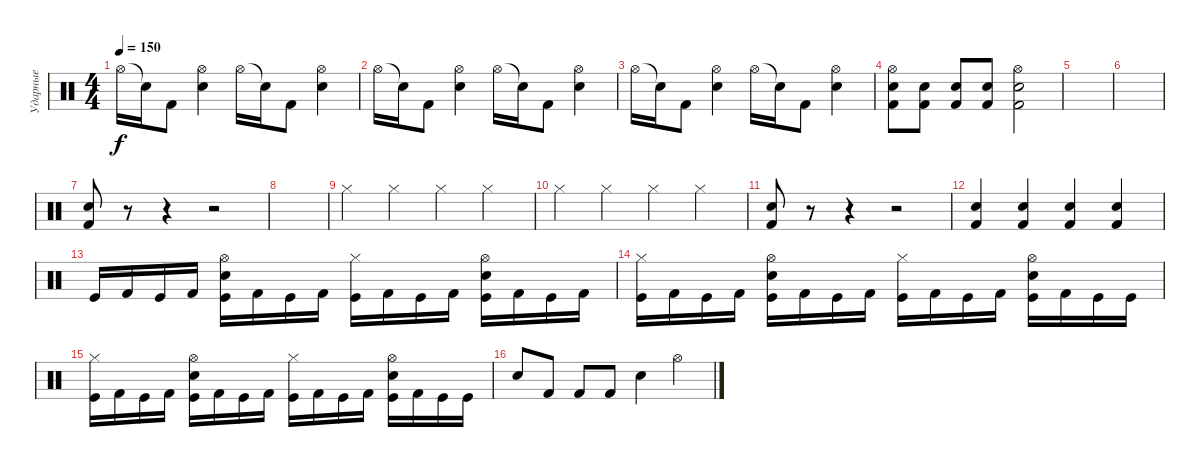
\track ("Ударные" "Ударные") {instrument percussion bank 25}
\staff {score}
\articulation defaults
\ts (4 4)
\tempo 150
\clef neutral
\ks c "Hi-Hat (open)".16{dy f} "Snare (hit)"{t}.16 "Kick (hit) 2".8
("Snare (hit) 2" "Hi-Hat (open)").4 "Hi-Hat (open)".16 "Snare (hit)"{t}.16 "Kick (hit) 2".8 ("Snare (hit) 2" "Hi-Hat (open)").4 |
"Hi-Hat (open)".16 "Snare (hit)"{t}.16 "Kick (hit) 2".8 ("Snare (hit) 2" "Hi-Hat (open)").4 "Hi-Hat (open)".16 "Snare (hit)"{t}.16 "Kick (hit) 2".8 ("Snare (hit) 2" "Hi-Hat (open)").4 |
"Hi-Hat (open)".16 "Snare (hit)"{t}.16 "Kick (hit) 2".8 ("Snare (hit) 2" "Hi-Hat (open)").4 "Hi-Hat (open)".16 "Snare (hit)"{t}.16 "Kick (hit) 2".8 ("Snare (hit) 2" "Hi-Hat (open)").4 |
("Kick (hit) 2" "Electric Snare (hit)" "Hi-Hat (open)").8 ("Kick (hit) 2" "Snare (hit) 2").8 ("Kick (hit) 2" "Snare (hit) 2").8 ("Kick (hit) 2" "Snare (hit) 2").8 ("Kick (hit) 2" "Electric Snare (hit)" "Hi-Hat (open)").2 |
|
|
("Electric Snare (hit)" "Kick (hit) 2").8 r.8 r.4 r.2 |
|
"Hi-Hat (closed)".4 "Hi-Hat (closed)".4 "Hi-Hat (closed)".4 "Hi-Hat (closed)".4 |
"Hi-Hat (closed)".4 "Hi-Hat (closed)".4 "Hi-Hat (closed)".4 "Hi-Hat (closed)".4 |
("Electric Snare (hit)" "Kick (hit) 2").8 r.8 r.4 r.2 |
("Electric Snare (hit)" "Kick (hit) 2").4 ("Electric Snare (hit)" "Kick (hit) 2").4 ("Electric Snare (hit)" "Kick (hit) 2").4 ("Electric Snare (hit)" "Kick (hit) 2").4 |
"Kick (hit)".16 "Kick (hit) 2".16 "Kick (hit)".16 "Kick (hit) 2".16 ("Kick (hit)" "Electric Snare (hit)" "Hi-Hat (open)").16 "Kick (hit) 2".16 "Kick (hit)".16 "Kick (hit) 2".16 ("Kick (hit)" "Hi-Hat (closed)").16 "Kick (hit) 2".16 "Kick (hit)".16 "Kick (hit) 2".16 ("Kick (hit)" "Electric Snare (hit)" "Hi-Hat (open)").16 "Kick (hit) 2".16 "Kick (hit)".16 "Kick (hit) 2".16 |
("Kick (hit)" "Hi-Hat (closed)").16 "Kick (hit) 2".16 "Kick (hit)".16 "Kick (hit) 2".16 ("Kick (hit)" "Electric Snare (hit)" "Hi-Hat (open)").16 "Kick (hit) 2".16 "Kick (hit)".16 "Kick (hit) 2".16 ("Kick (hit)" "Hi-Hat (closed)").16 "Kick (hit) 2".16 "Kick (hit)".16 "Kick (hit) 2".16 ("Kick (hit)" "Electric Snare (hit)" "Hi-Hat (open)").16 "Kick (hit) 2".16 "Kick (hit)".16 "Kick (hit)".16 |
("Kick (hit)" "Hi-Hat (closed)").16 "Kick (hit) 2".16 "Kick (hit)".16 "Kick (hit) 2".16 ("Kick (hit)" "Electric Snare (hit)" "Hi-Hat (open)").16 "Kick (hit) 2".16 "Kick (hit)".16 "Kick (hit) 2".16 ("Kick (hit)" "Hi-Hat (closed)").16 "Kick (hit) 2".16 "Kick (hit)".16 "Kick (hit) 2".16 ("Kick (hit)" "Electric Snare (hit)" "Hi-Hat (open)").16 "Kick (hit) 2".16 "Kick (hit)".16 "Kick (hit)".16 |
"Electric Snare (hit)".8 "Kick (hit) 2".8 "Kick (hit) 2".8 "Kick (hit) 2".8 "Snare (hit) 2".4 "Hi-Hat (open)".4
